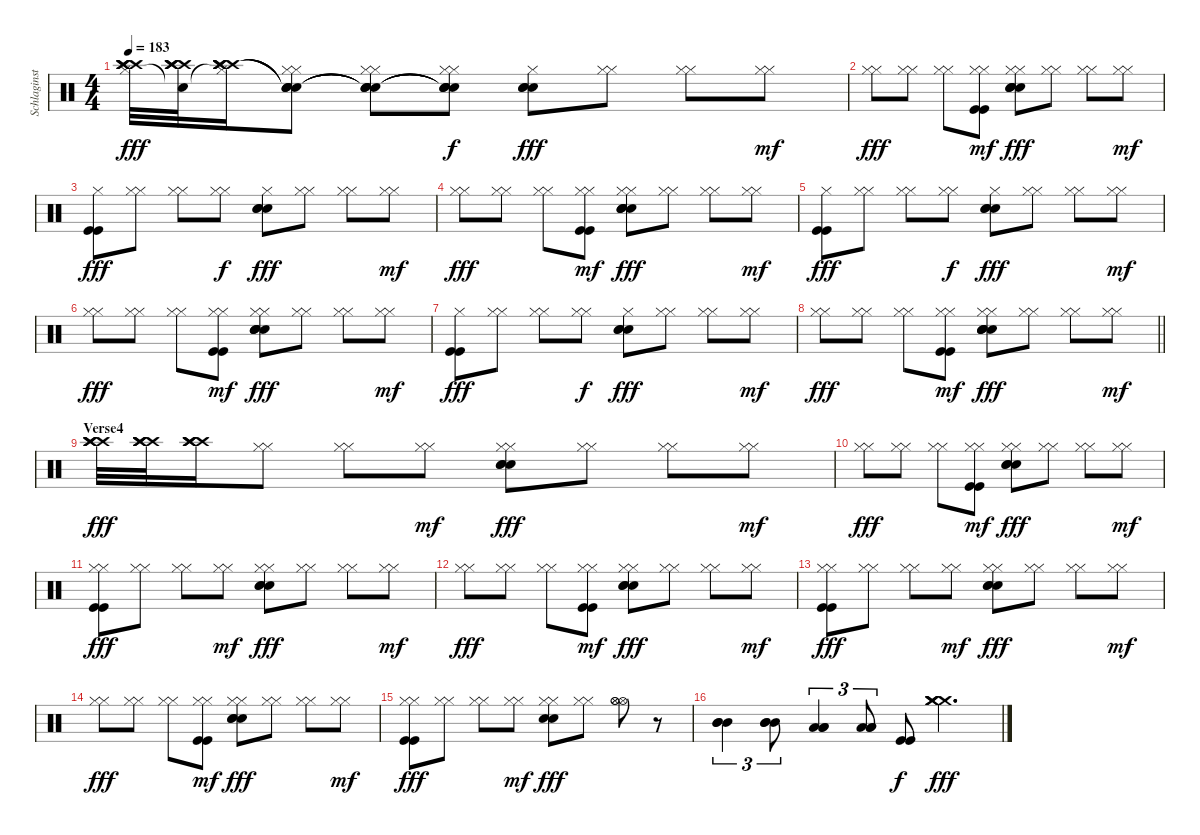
\track ("Schlaginstrumente - Auswahl" "Schlaginst") {instrument percussion}
\staff {score}
\articulation defaults
\ts (4 4)
\tempo 183
\clef neutral
\ks c
("Hi-Hat (closed)" "Crash high (hit)" "Crash high (hit)" "Crash high (hit)" "Crash high (hit)").32{dy fff} ("Snare (hit)"{t} "Crash high (hit)" "Crash high (hit)" "Crash high (hit)" "Crash high (hit)").32 ("Hi-Hat (closed)"{t} "Crash high (hit)" "Crash high (hit)" "Crash high (hit)" "Crash high (hit)").16 ("Hi-Hat (closed)" "Hi-Hat (closed)" "Snare (hit)"{t} "Snare (hit)"{t} "Snare (hit)"{t} "Snare (hit)").8 ("Hi-Hat (closed)" "Hi-Hat (closed)" "Snare (hit)"{t} "Snare (hit)"{t} "Snare (hit)"{t} "Snare (hit)"{t}).8 ("Hi-Hat (closed)" "Hi-Hat (closed)" "Snare (hit)"{t} "Snare (hit)"{t} "Snare (hit)"{t} "Snare (hit)"{t}).8{dy f} ("Hi-Hat (closed)" "Snare (hit) 2" "Snare (hit) 2" "Snare (hit) 2").8{dy fff} ("Hi-Hat (closed)" "Hi-Hat (closed)").8 ("Hi-Hat (closed)" "Hi-Hat (closed)").8 ("Hi-Hat (closed)" "Hi-Hat (closed)").8{dy mf} |
("Hi-Hat (closed)" "Hi-Hat (closed)").8{dy fff} ("Hi-Hat (closed)" "Hi-Hat (closed)").8 ("Hi-Hat (closed)" "Hi-Hat (closed)").8 ("Hi-Hat (closed)" "Hi-Hat (closed)" "Kick (hit)" "Kick (hit)").8{dy mf} ("Hi-Hat (closed)" "Hi-Hat (closed)" "Snare (hit) 2" "Snare (hit) 2" "Snare (hit) 2" "Snare (hit) 2").8{dy fff} ("Hi-Hat (closed)" "Hi-Hat (closed)").8 ("Hi-Hat (closed)" "Hi-Hat (closed)").8 ("Hi-Hat (closed)" "Hi-Hat (closed)").8{dy mf} |
("Hi-Hat (closed)" "Kick (hit)" "Kick (hit)").8{dy fff} ("Hi-Hat (closed)" "Hi-Hat (closed)").8 ("Hi-Hat (closed)" "Hi-Hat (closed)").8 ("Hi-Hat (closed)" "Hi-Hat (closed)").8{dy f} ("Hi-Hat (closed)" "Snare (hit) 2" "Snare (hit) 2" "Snare (hit) 2").8{dy fff} ("Hi-Hat (closed)" "Hi-Hat (closed)").8 ("Hi-Hat (closed)" "Hi-Hat (closed)").8 ("Hi-Hat (closed)" "Hi-Hat (closed)").8{dy mf} |
("Hi-Hat (closed)" "Hi-Hat (closed)").8{dy fff} ("Hi-Hat (closed)" "Hi-Hat (closed)").8 ("Hi-Hat (closed)" "Hi-Hat (closed)").8 ("Hi-Hat (closed)" "Hi-Hat (closed)" "Kick (hit)" "Kick (hit)").8{dy mf} ("Hi-Hat (closed)" "Hi-Hat (closed)" "Snare (hit) 2" "Snare (hit) 2" "Snare (hit) 2" "Snare (hit) 2").8{dy fff} ("Hi-Hat (closed)" "Hi-Hat (closed)").8 ("Hi-Hat (closed)" "Hi-Hat (closed)").8 ("Hi-Hat (closed)" "Hi-Hat (closed)").8{dy mf} |
("Hi-Hat (closed)" "Kick (hit)" "Kick (hit)").8{dy fff} ("Hi-Hat (closed)" "Hi-Hat (closed)").8 ("Hi-Hat (closed)" "Hi-Hat (closed)").8 ("Hi-Hat (closed)" "Hi-Hat (closed)").8{dy f} ("Hi-Hat (closed)" "Snare (hit) 2" "Snare (hit) 2" "Snare (hit) 2").8{dy fff} ("Hi-Hat (closed)" "Hi-Hat (closed)").8 ("Hi-Hat (closed)" "Hi-Hat (closed)").8 ("Hi-Hat (closed)" "Hi-Hat (closed)").8{dy mf} |
("Hi-Hat (closed)" "Hi-Hat (closed)").8{dy fff} ("Hi-Hat (closed)" "Hi-Hat (closed)").8 ("Hi-Hat (closed)" "Hi-Hat (closed)").8 ("Hi-Hat (closed)" "Hi-Hat (closed)" "Kick (hit)" "Kick (hit)").8{dy mf} ("Hi-Hat (closed)" "Hi-Hat (closed)" "Snare (hit) 2" "Snare (hit) 2" "Snare (hit) 2" "Snare (hit) 2").8{dy fff} ("Hi-Hat (closed)" "Hi-Hat (closed)").8 ("Hi-Hat (closed)" "Hi-Hat (closed)").8 ("Hi-Hat (closed)" "Hi-Hat (closed)").8{dy mf} |
("Hi-Hat (closed)" "Kick (hit)" "Kick (hit)").8{dy fff} ("Hi-Hat (closed)" "Hi-Hat (closed)").8 ("Hi-Hat (closed)" "Hi-Hat (closed)").8 ("Hi-Hat (closed)" "Hi-Hat (closed)").8{dy f} ("Hi-Hat (closed)" "Snare (hit) 2" "Snare (hit) 2" "Snare (hit) 2").8{dy fff} ("Hi-Hat (closed)" "Hi-Hat (closed)").8 ("Hi-Hat (closed)" "Hi-Hat (closed)").8 ("Hi-Hat (closed)" "Hi-Hat (closed)").8{dy mf} |
\barLineRight lightlight
("Hi-Hat (closed)" "Hi-Hat (closed)").8{dy fff} ("Hi-Hat (closed)" "Hi-Hat (closed)").8 ("Hi-Hat (closed)" "Hi-Hat (closed)").8 ("Hi-Hat (closed)" "Hi-Hat (closed)" "Kick (hit)" "Kick (hit)").8{dy mf} ("Hi-Hat (closed)" "Hi-Hat (closed)" "Snare (hit) 2" "Snare (hit) 2" "Snare (hit) 2" "Snare (hit) 2").8{dy fff} ("Hi-Hat (closed)" "Hi-Hat (closed)").8 ("Hi-Hat (closed)" "Hi-Hat (closed)").8 ("Hi-Hat (closed)" "Hi-Hat (closed)").8{dy mf} |
\section ("" "Verse4")
("Crash high (hit)" "Crash high (hit)" "Crash high (hit)" "Crash high (hit)").32{dy fff} ("Crash high (hit)" "Crash high (hit)" "Crash high (hit)" "Crash high (hit)").32 ("Crash high (hit)" "Crash high (hit)" "Crash high (hit)" "Crash high (hit)").16 ("Hi-Hat (closed)" "Hi-Hat (closed)").8 ("Hi-Hat (closed)" "Hi-Hat (closed)").8 ("Hi-Hat (closed)" "Hi-Hat (closed)").8{dy mf} ("Hi-Hat (closed)" "Hi-Hat (closed)" "Snare (hit) 2" "Snare (hit) 2" "Snare (hit) 2").8{dy fff} ("Hi-Hat (closed)" "Hi-Hat (closed)").8 ("Hi-Hat (closed)" "Hi-Hat (closed)").8 ("Hi-Hat (closed)" "Hi-Hat (closed)").8{dy mf} |
("Hi-Hat (closed)" "Hi-Hat (closed)").8{dy fff} ("Hi-Hat (closed)" "Hi-Hat (closed)").8 ("Hi-Hat (closed)" "Hi-Hat (closed)").8 ("Hi-Hat (closed)" "Hi-Hat (closed)" "Kick (hit)" "Kick (hit)").8{dy mf} ("Hi-Hat (closed)" "Hi-Hat (closed)" "Snare (hit) 2" "Snare (hit) 2" "Snare (hit) 2").8{dy fff} ("Hi-Hat (closed)" "Hi-Hat (closed)").8 ("Hi-Hat (closed)" "Hi-Hat (closed)").8 ("Hi-Hat (closed)" "Hi-Hat (closed)").8{dy mf} |
("Hi-Hat (closed)" "Hi-Hat (closed)" "Kick (hit)" "Kick (hit)").8{dy fff} ("Hi-Hat (closed)" "Hi-Hat (closed)").8 ("Hi-Hat (closed)" "Hi-Hat (closed)").8 ("Hi-Hat (closed)" "Hi-Hat (closed)").8{dy mf} ("Hi-Hat (closed)" "Hi-Hat (closed)" "Snare (hit) 2" "Snare (hit) 2" "Snare (hit) 2").8{dy fff} ("Hi-Hat (closed)" "Hi-Hat (closed)").8 ("Hi-Hat (closed)" "Hi-Hat (closed)").8 ("Hi-Hat (closed)" "Hi-Hat (closed)").8{dy mf} |
("Hi-Hat (closed)" "Hi-Hat (closed)").8{dy fff} ("Hi-Hat (closed)" "Hi-Hat (closed)").8 ("Hi-Hat (closed)" "Hi-Hat (closed)").8 ("Hi-Hat (closed)" "Hi-Hat (closed)" "Kick (hit)" "Kick (hit)").8{dy mf} ("Hi-Hat (closed)" "Hi-Hat (closed)" "Snare (hit) 2" "Snare (hit) 2" "Snare (hit) 2").8{dy fff} ("Hi-Hat (closed)" "Hi-Hat (closed)").8 ("Hi-Hat (closed)" "Hi-Hat (closed)").8 ("Hi-Hat (closed)" "Hi-Hat (closed)").8{dy mf} |
("Hi-Hat (closed)" "Hi-Hat (closed)" "Kick (hit)" "Kick (hit)").8{dy fff} ("Hi-Hat (closed)" "Hi-Hat (closed)").8 ("Hi-Hat (closed)" "Hi-Hat (closed)").8 ("Hi-Hat (closed)" "Hi-Hat (closed)").8{dy mf} ("Hi-Hat (closed)" "Hi-Hat (closed)" "Snare (hit) 2" "Snare (hit) 2" "Snare (hit) 2").8{dy fff} ("Hi-Hat (closed)" "Hi-Hat (closed)").8 ("Hi-Hat (closed)" "Hi-Hat (closed)").8 ("Hi-Hat (closed)" "Hi-Hat (closed)").8{dy mf} |
("Hi-Hat (closed)" "Hi-Hat (closed)").8{dy fff} ("Hi-Hat (closed)" "Hi-Hat (closed)").8 ("Hi-Hat (closed)" "Hi-Hat (closed)").8 ("Hi-Hat (closed)" "Hi-Hat (closed)" "Kick (hit)" "Kick (hit)").8{dy mf} ("Hi-Hat (closed)" "Hi-Hat (closed)" "Snare (hit) 2" "Snare (hit) 2" "Snare (hit) 2").8{dy fff} ("Hi-Hat (closed)" "Hi-Hat (closed)").8 ("Hi-Hat (closed)" "Hi-Hat (closed)").8 ("Hi-Hat (closed)" "Hi-Hat (closed)").8{dy mf} |
("Hi-Hat (closed)" "Hi-Hat (closed)" "Kick (hit)" "Kick (hit)").8{dy fff} ("Hi-Hat (closed)" "Hi-Hat (closed)").8 ("Hi-Hat (closed)" "Hi-Hat (closed)").8 ("Hi-Hat (closed)" "Hi-Hat (closed)").8{dy mf} ("Hi-Hat (closed)" "Hi-Hat (closed)" "Snare (hit) 2" "Snare (hit) 2").8{dy fff} ("Hi-Hat (closed)" "Hi-Hat (closed)").8 ("Hi-Hat (open)" "Hi-Hat (open)" "Hi-Hat (open)").8 r.8 |
("Mid Tom (hit)" "Mid Tom (hit)" "Mid Tom (hit)").4{tu (3 2)} ("Mid Tom (hit)" "Mid Tom (hit)" "Mid Tom (hit)").8{tu (3 2)} ("Low Tom (hit)" "Low Tom (hit)" "Low Tom (hit)").4{tu (3 2)} ("Low Tom (hit)" "Low Tom (hit)" "Low Tom (hit)").8{tu (3 2)} ("Kick (hit)" "Kick (hit)").8{dy f} ("Crash medium (hit)" "Crash medium (hit)" "Crash medium (hit)" "Crash medium (hit)").4{d dy fff}
